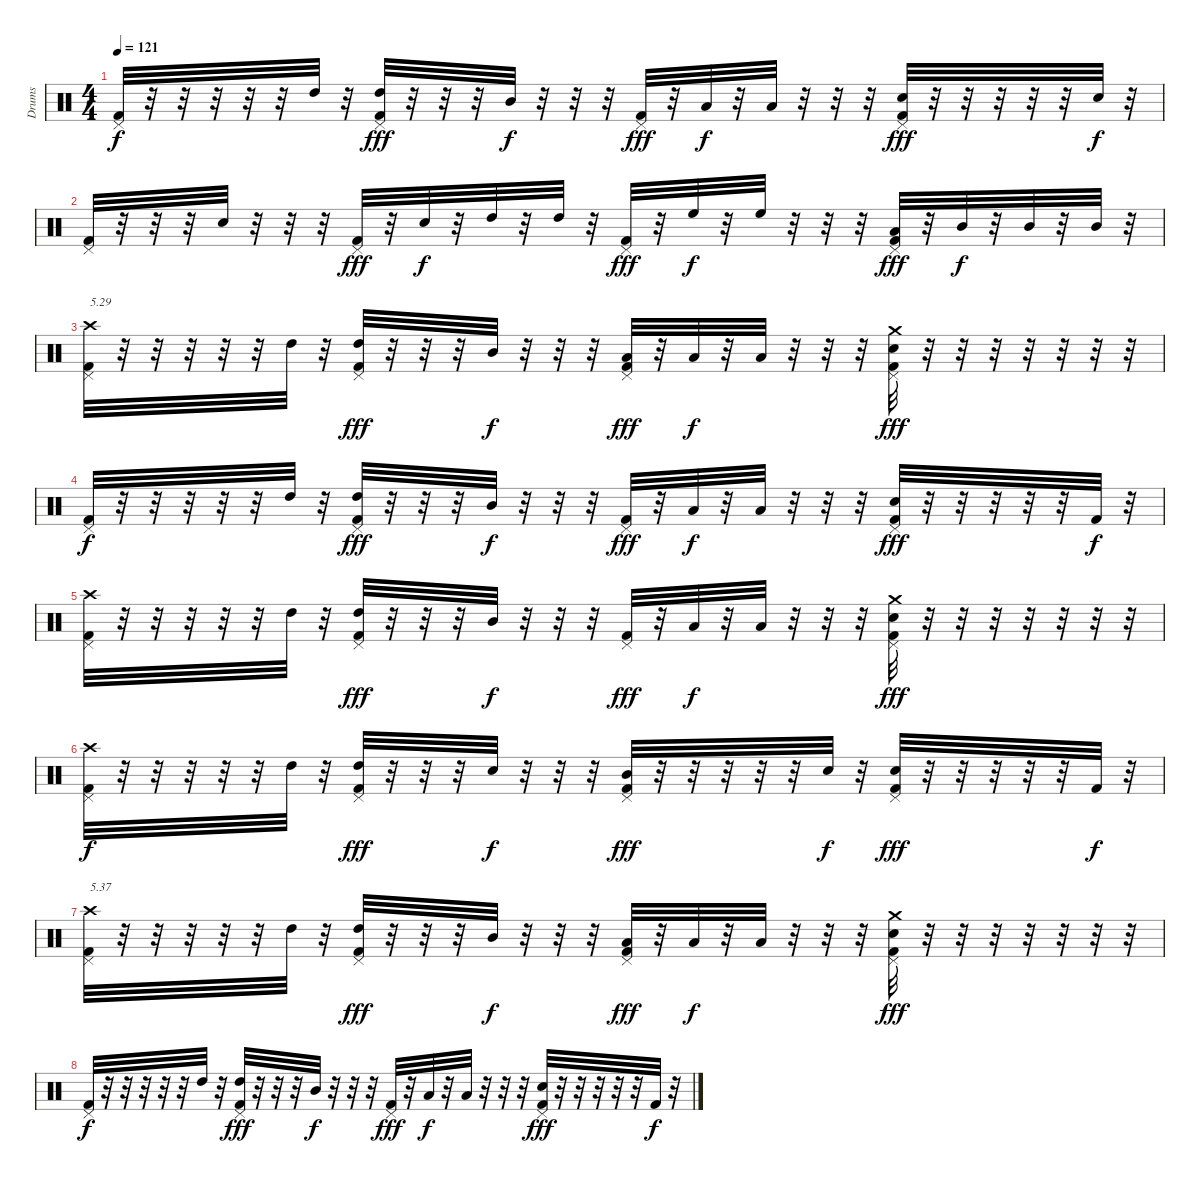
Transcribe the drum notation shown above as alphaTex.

\track ("Drums" "Drums") {instrument percussion}
\staff {score}
\articulation defaults
\ts (4 4)
\tempo 121
\clef neutral
\ks c
("Pedal Hi-Hat (hit)" "Kick (hit) 2").32{dy f} r.32 r.32 r.32 r.32 r.32 "High Tom (hit)".32 r.32 ("Pedal Hi-Hat (hit)" "Kick (hit) 2" "High Tom (hit)").32{dy fff} r.32 r.32 r.32 "Mid Tom (hit)".32{dy f} r.32 r.32 r.32 ("Pedal Hi-Hat (hit)" "Kick (hit) 2").32{dy fff} r.32 "Low Tom (hit)".32{dy f} r.32 "Low Tom (hit)".32 r.32 r.32 r.32 ("Pedal Hi-Hat (hit)" "Kick (hit) 2" "Electric Snare (hit)").32{dy fff} r.32 r.32 r.32 r.32 r.32 "Electric Snare (hit)".32{dy f} r.32 |
("Pedal Hi-Hat (hit)" "Kick (hit) 2").32 r.32 r.32 r.32 "Electric Snare (hit)".32 r.32 r.32 r.32 ("Pedal Hi-Hat (hit)" "Kick (hit) 2").32{dy fff} r.32 "Electric Snare (hit)".32{dy f} r.32 "High Tom (hit)".32 r.32 "High Tom (hit)".32 r.32 ("Pedal Hi-Hat (hit)" "Kick (hit) 2").32{dy fff} r.32 "High Floor Tom (hit)".32{dy f} r.32 "High Floor Tom (hit)".32 r.32 r.32 r.32 ("Pedal Hi-Hat (hit)" "Kick (hit) 2" "Low Tom (hit)").32{dy fff} r.32 "Mid Tom (hit)".32{dy f} r.32 "Mid Tom (hit)".32 r.32 "Mid Tom (hit)".32 r.32 |
("Pedal Hi-Hat (hit)" "Kick (hit) 2" "Crash high (hit)").32{txt "5.29"} r.32 r.32 r.32 r.32 r.32 "High Tom (hit)".32 r.32 ("Pedal Hi-Hat (hit)" "Kick (hit) 2" "High Tom (hit)").32{dy fff} r.32 r.32 r.32 "Mid Tom (hit)".32{dy f} r.32 r.32 r.32 ("Pedal Hi-Hat (hit)" "Kick (hit) 2" "Low Tom (hit)").32{dy fff} r.32 "Low Tom (hit)".32{dy f} r.32 "Low Tom (hit)".32 r.32 r.32 r.32 ("Pedal Hi-Hat (hit)" "Kick (hit) 2" "Electric Snare (hit)" "Crash medium (hit)").32{dy fff} r.32 r.32 r.32 r.32 r.32 r.32 r.32 |
("Pedal Hi-Hat (hit)" "Kick (hit) 2").32{dy f} r.32 r.32 r.32 r.32 r.32 "High Tom (hit)".32 r.32 ("Pedal Hi-Hat (hit)" "Kick (hit) 2" "High Tom (hit)").32{dy fff} r.32 r.32 r.32 "Mid Tom (hit)".32{dy f} r.32 r.32 r.32 ("Pedal Hi-Hat (hit)" "Kick (hit) 2").32{dy fff} r.32 "Low Tom (hit)".32{dy f} r.32 "Low Tom (hit)".32 r.32 r.32 r.32 ("Pedal Hi-Hat (hit)" "Kick (hit) 2" "Electric Snare (hit)").32{dy fff} r.32 r.32 r.32 r.32 r.32 "Kick (hit) 2".32{dy f} r.32 |
("Pedal Hi-Hat (hit)" "Kick (hit) 2" "Crash high (hit)").32 r.32 r.32 r.32 r.32 r.32 "High Tom (hit)".32 r.32 ("Pedal Hi-Hat (hit)" "Kick (hit) 2" "High Tom (hit)").32{dy fff} r.32 r.32 r.32 "Mid Tom (hit)".32{dy f} r.32 r.32 r.32 ("Pedal Hi-Hat (hit)" "Kick (hit) 2").32{dy fff} r.32 "Low Tom (hit)".32{dy f} r.32 "Low Tom (hit)".32 r.32 r.32 r.32 ("Pedal Hi-Hat (hit)" "Kick (hit) 2" "Electric Snare (hit)" "Crash medium (hit)").32{dy fff} r.32 r.32 r.32 r.32 r.32 r.32 r.32 |
("Pedal Hi-Hat (hit)" "Kick (hit) 2" "Crash high (hit)").32{dy f} r.32 r.32 r.32 r.32 r.32 "High Tom (hit)".32 r.32 ("Pedal Hi-Hat (hit)" "Kick (hit) 2" "High Tom (hit)").32{dy fff} r.32 r.32 r.32 "Electric Snare (hit)".32{dy f} r.32 r.32 r.32 ("Pedal Hi-Hat (hit)" "Kick (hit) 2" "Mid Tom (hit)").32{dy fff} r.32 r.32 r.32 r.32 r.32 "Electric Snare (hit)".32{dy f} r.32 ("Pedal Hi-Hat (hit)" "Kick (hit) 2" "Electric Snare (hit)").32{dy fff} r.32 r.32 r.32 r.32 r.32 "Kick (hit) 2".32{dy f} r.32 |
("Pedal Hi-Hat (hit)" "Kick (hit) 2" "Crash high (hit)").32{txt "5.37"} r.32 r.32 r.32 r.32 r.32 "High Tom (hit)".32 r.32 ("Pedal Hi-Hat (hit)" "Kick (hit) 2" "High Tom (hit)").32{dy fff} r.32 r.32 r.32 "Mid Tom (hit)".32{dy f} r.32 r.32 r.32 ("Pedal Hi-Hat (hit)" "Kick (hit) 2" "Low Tom (hit)").32{dy fff} r.32 "Low Tom (hit)".32{dy f} r.32 "Low Tom (hit)".32 r.32 r.32 r.32 ("Pedal Hi-Hat (hit)" "Kick (hit) 2" "Electric Snare (hit)" "Crash medium (hit)").32{dy fff} r.32 r.32 r.32 r.32 r.32 r.32 r.32 |
("Pedal Hi-Hat (hit)" "Kick (hit) 2").32{dy f} r.32 r.32 r.32 r.32 r.32 "High Tom (hit)".32 r.32 ("Pedal Hi-Hat (hit)" "Kick (hit) 2" "High Tom (hit)").32{dy fff} r.32 r.32 r.32 "Mid Tom (hit)".32{dy f} r.32 r.32 r.32 ("Pedal Hi-Hat (hit)" "Kick (hit) 2").32{dy fff} r.32 "Low Tom (hit)".32{dy f} r.32 "Low Tom (hit)".32 r.32 r.32 r.32 ("Pedal Hi-Hat (hit)" "Kick (hit) 2" "Electric Snare (hit)").32{dy fff} r.32 r.32 r.32 r.32 r.32 "Kick (hit) 2".32{dy f} r.32
